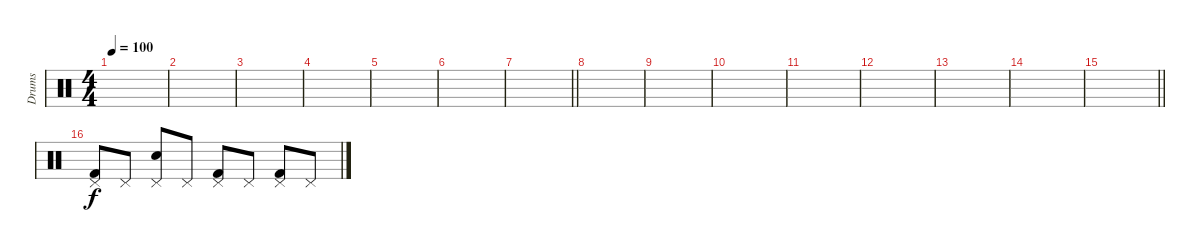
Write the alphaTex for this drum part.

\track ("Drums" "Drums") {instrument percussion}
\staff {score}
\articulation defaults
\ts (4 4)
\tempo 100
\clef neutral
\ks c
|
|
|
|
|
|
\barLineRight lightlight
|
|
|
|
|
|
|
|
\barLineRight lightlight
|
("Pedal Hi-Hat (hit)" "Kick (hit) 2").8 "Pedal Hi-Hat (hit)".8 ("Pedal Hi-Hat (hit)" "Electric Snare (hit)").8 "Pedal Hi-Hat (hit)".8 ("Pedal Hi-Hat (hit)" "Kick (hit) 2").8 "Pedal Hi-Hat (hit)".8 ("Pedal Hi-Hat (hit)" "Kick (hit) 2").8 "Pedal Hi-Hat (hit)".8
